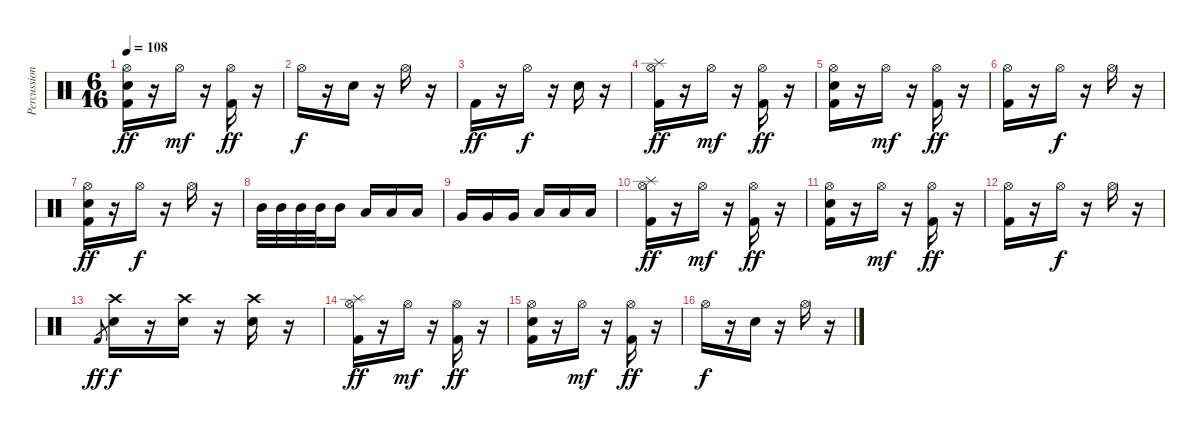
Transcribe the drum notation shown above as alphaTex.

\track ("Percussion" "Percussion") {instrument percussion}
\staff {score}
\articulation defaults
\ts (6 16)
\tempo 108
\clef neutral
\ks c
("Hi-Hat (open)" "Electric Snare (hit)" "Kick (hit) 2").16{dy ff} r.16 "Hi-Hat (open)".16{dy mf} r.16 ("Hi-Hat (open)" "Kick (hit) 2").16{dy ff} r.16 |
"Hi-Hat (open)".16{dy f} r.16 "Electric Snare (hit)".16 r.16 "Hi-Hat (open)".16 r.16 |
"Kick (hit) 2".16{dy ff} r.16 "Hi-Hat (open)".16{dy f} r.16 "Electric Snare (hit)".16 r.16 |
("Splash (hit)" "Hi-Hat (open)" "Kick (hit) 2").16{dy ff} r.16 "Hi-Hat (open)".16{dy mf} r.16 ("Hi-Hat (open)" "Kick (hit) 2").16{dy ff} r.16 |
("Hi-Hat (open)" "Electric Snare (hit)" "Kick (hit) 2").16 r.16 "Hi-Hat (open)".16{dy mf} r.16 ("Hi-Hat (open)" "Kick (hit) 2").16{dy ff} r.16 |
("Hi-Hat (open)" "Kick (hit) 2").16 r.16 "Hi-Hat (open)".16{dy f} r.16 "Hi-Hat (open)".16 r.16 |
("Hi-Hat (open)" "Electric Snare (hit)" "Kick (hit) 2").16{dy ff} r.16 "Hi-Hat (open)".16{dy f} r.16 "Hi-Hat (open)".16 r.16 |
"Mid Tom (hit)".32 "Mid Tom (hit)".32 "Mid Tom (hit)".32 "Mid Tom (hit)".32 "Mid Tom (hit)".16 "Low Tom (hit)".16 "Low Tom (hit)".16 "Low Tom (hit)".16 |
"Very Low Tom (hit)".16 "Very Low Tom (hit)".16 "Very Low Tom (hit)".16 "Low Floor Tom (hit)".16 "Low Floor Tom (hit)".16 "Low Floor Tom (hit)".16 |
("Splash (hit)" "Hi-Hat (open)" "Kick (hit) 2").16{dy ff} r.16 "Hi-Hat (open)".16{dy mf} r.16 ("Hi-Hat (open)" "Kick (hit) 2").16{dy ff} r.16 |
("Hi-Hat (open)" "Electric Snare (hit)" "Kick (hit) 2").16 r.16 "Hi-Hat (open)".16{dy mf} r.16 ("Hi-Hat (open)" "Kick (hit) 2").16{dy ff} r.16 |
("Hi-Hat (open)" "Kick (hit) 2").16 r.16 "Hi-Hat (open)".16{dy f} r.16 "Hi-Hat (open)".16 r.16 |
"Kick (hit) 2".8{gr dy ff} ("Crash high (hit)" "Electric Snare (hit)").16{dy f} r.16 ("Crash high (hit)" "Electric Snare (hit)").16 r.16 ("Crash high (hit)" "Electric Snare (hit)").16 r.16 |
("Splash (hit)" "Hi-Hat (open)" "Kick (hit) 2").16{dy ff} r.16 "Hi-Hat (open)".16{dy mf} r.16 ("Hi-Hat (open)" "Kick (hit) 2").16{dy ff} r.16 |
("Hi-Hat (open)" "Electric Snare (hit)" "Kick (hit) 2").16 r.16 "Hi-Hat (open)".16{dy mf} r.16 ("Hi-Hat (open)" "Kick (hit) 2").16{dy ff} r.16 |
"Hi-Hat (open)".16{dy f} r.16 "Electric Snare (hit)".16 r.16 "Hi-Hat (open)".16 r.16
